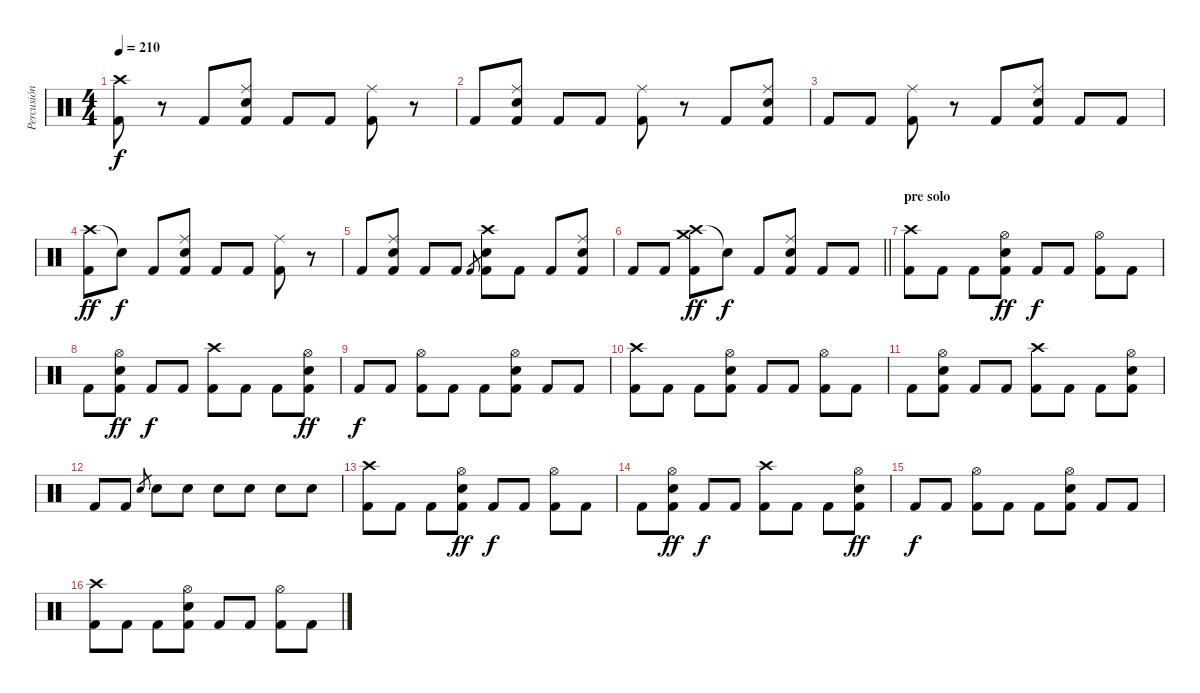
\track ("Percusión" "Percusión") {instrument percussion}
\staff {score}
\articulation defaults
\ts (4 4)
\tempo 210
\clef neutral
\ks c
("Crash high (hit)" "Kick (hit) 2").8{dy f} r.8 "Kick (hit) 2".8 ("Ride (middle)" "Snare (hit) 2" "Kick (hit) 2").8 "Kick (hit) 2".8 "Kick (hit) 2".8 ("Ride (middle)" "Kick (hit) 2").8 r.8 |
"Kick (hit) 2".8 ("Ride (middle)" "Snare (hit) 2" "Kick (hit) 2").8 "Kick (hit) 2".8 "Kick (hit) 2".8 ("Ride (middle)" "Kick (hit) 2").8 r.8 "Kick (hit) 2".8 ("Ride (middle)" "Snare (hit) 2" "Kick (hit) 2").8 |
"Kick (hit) 2".8 "Kick (hit) 2".8 ("Ride (middle)" "Kick (hit) 2").8 r.8 "Kick (hit) 2".8 ("Ride (middle)" "Snare (hit) 2" "Kick (hit) 2").8 "Kick (hit) 2".8 "Kick (hit) 2".8 |
("Crash high (hit)" "Kick (hit) 2").8{dy ff} "Snare (hit)"{t}.8{dy f} "Kick (hit) 2".8 ("Ride (middle)" "Snare (hit) 2" "Kick (hit) 2").8 "Kick (hit) 2".8 "Kick (hit) 2".8 ("Ride (middle)" "Kick (hit) 2").8 r.8 |
"Kick (hit) 2".8 ("Ride (middle)" "Snare (hit) 2" "Kick (hit) 2").8 "Kick (hit) 2".8 "Kick (hit) 2".8 "Kick (hit) 2".8{gr} ("Crash high (hit)" "Snare (hit) 2" "Kick (hit) 2").8 "Kick (hit) 2".8 "Kick (hit) 2".8 ("Ride (middle)" "Snare (hit) 2" "Kick (hit) 2").8 |
\barLineRight lightlight "Kick (hit) 2".8 "Kick (hit) 2".8
("Crash high (hit)" "Crash medium (hit)" "Kick (hit) 2").8{dy ff} "Snare (hit)"{t}.8{dy f} "Kick (hit) 2".8 ("Ride (middle)" "Snare (hit) 2" "Kick (hit) 2").8 "Kick (hit) 2".8 "Kick (hit) 2".8 |
\section ("" "pre solo")
("Crash high (hit)" "Kick (hit) 2").8 "Kick (hit) 2".8 "Kick (hit) 2".8 ("Hi-Hat (open)" "Snare (hit) 2" "Kick (hit) 2").8{dy ff} "Kick (hit) 2".8{dy f} "Kick (hit) 2".8 ("Hi-Hat (open)" "Kick (hit) 2").8 "Kick (hit) 2".8 |
"Kick (hit) 2".8 ("Hi-Hat (open)" "Snare (hit) 2" "Kick (hit) 2").8{dy ff} "Kick (hit) 2".8{dy f} "Kick (hit) 2".8 ("Crash high (hit)" "Kick (hit) 2").8 "Kick (hit) 2".8 "Kick (hit) 2".8 ("Hi-Hat (open)" "Snare (hit) 2" "Kick (hit) 2").8{dy ff} |
"Kick (hit) 2".8{dy f} "Kick (hit) 2".8 ("Hi-Hat (open)" "Kick (hit) 2").8 "Kick (hit) 2".8 "Kick (hit) 2".8 ("Hi-Hat (open)" "Snare (hit) 2" "Kick (hit) 2").8 "Kick (hit) 2".8 "Kick (hit) 2".8 |
("Crash high (hit)" "Kick (hit) 2").8 "Kick (hit) 2".8 "Kick (hit) 2".8 ("Hi-Hat (open)" "Snare (hit) 2" "Kick (hit) 2").8 "Kick (hit) 2".8 "Kick (hit) 2".8 ("Hi-Hat (open)" "Kick (hit) 2").8 "Kick (hit) 2".8 |
"Kick (hit) 2".8 ("Hi-Hat (open)" "Snare (hit) 2" "Kick (hit) 2").8 "Kick (hit) 2".8 "Kick (hit) 2".8 ("Crash high (hit)" "Kick (hit) 2").8 "Kick (hit) 2".8 "Kick (hit) 2".8 ("Hi-Hat (open)" "Snare (hit) 2" "Kick (hit) 2").8 |
"Kick (hit) 2".8 "Kick (hit) 2".8 "Electric Snare (hit)".8{gr} "Electric Snare (hit)".8 "Electric Snare (hit)".8 "Electric Snare (hit)".8 "Electric Snare (hit)".8 "Electric Snare (hit)".8 "Electric Snare (hit)".8 |
("Crash high (hit)" "Kick (hit) 2").8 "Kick (hit) 2".8 "Kick (hit) 2".8 ("Hi-Hat (open)" "Snare (hit) 2" "Kick (hit) 2").8{dy ff} "Kick (hit) 2".8{dy f} "Kick (hit) 2".8 ("Hi-Hat (open)" "Kick (hit) 2").8 "Kick (hit) 2".8 |
"Kick (hit) 2".8 ("Hi-Hat (open)" "Snare (hit) 2" "Kick (hit) 2").8{dy ff} "Kick (hit) 2".8{dy f} "Kick (hit) 2".8 ("Crash high (hit)" "Kick (hit) 2").8 "Kick (hit) 2".8 "Kick (hit) 2".8 ("Hi-Hat (open)" "Snare (hit) 2" "Kick (hit) 2").8{dy ff} |
"Kick (hit) 2".8{dy f} "Kick (hit) 2".8 ("Hi-Hat (open)" "Kick (hit) 2").8 "Kick (hit) 2".8 "Kick (hit) 2".8 ("Hi-Hat (open)" "Snare (hit) 2" "Kick (hit) 2").8 "Kick (hit) 2".8 "Kick (hit) 2".8 |
("Crash high (hit)" "Kick (hit) 2").8 "Kick (hit) 2".8 "Kick (hit) 2".8 ("Hi-Hat (open)" "Snare (hit) 2" "Kick (hit) 2").8 "Kick (hit) 2".8 "Kick (hit) 2".8 ("Hi-Hat (open)" "Kick (hit) 2").8 "Kick (hit) 2".8
